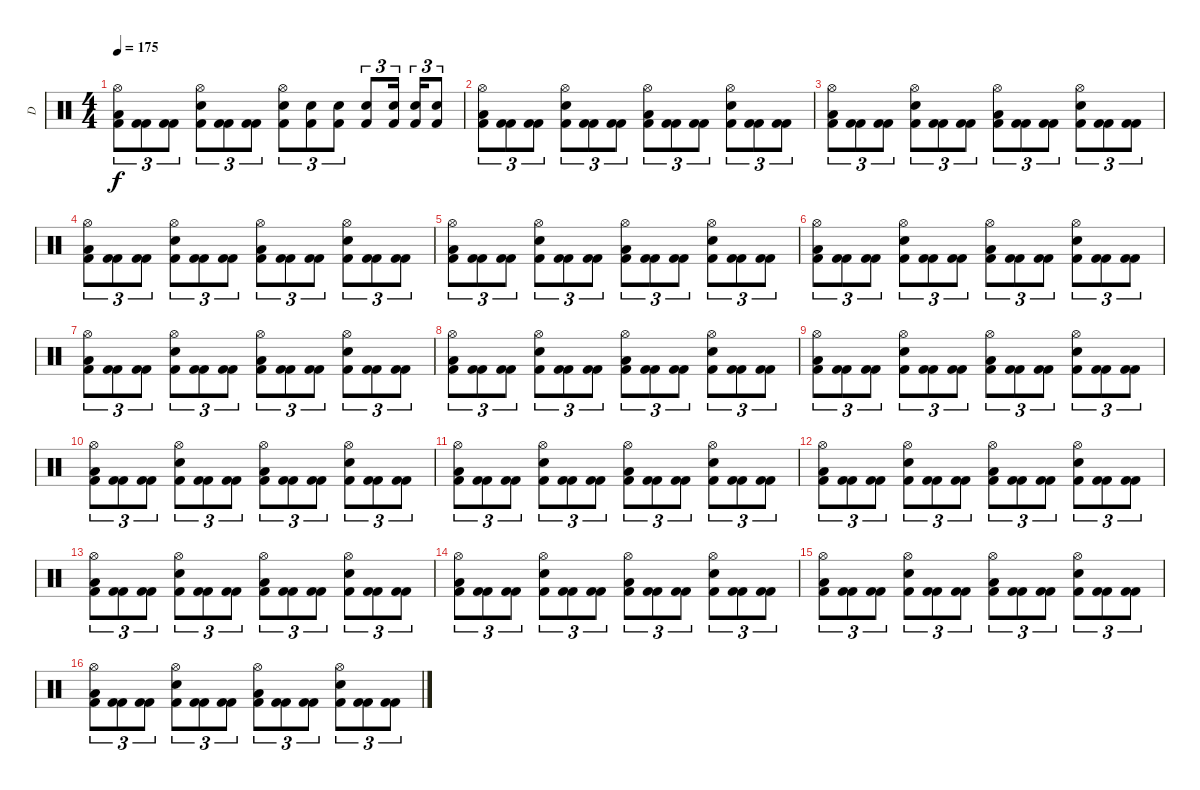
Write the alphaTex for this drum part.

\track ("D" "D") {instrument percussion}
\staff {score}
\articulation defaults
\ts (4 4)
\tempo 175
\clef neutral
\ks c
("Hi-Hat (open)" "Low Floor Tom (hit)" "Kick (hit) 2").8{tu (3 2) dy f} ("Kick (hit) 2" "Kick (hit) 2").8{tu (3 2)} ("Kick (hit) 2" "Kick (hit) 2").8{tu (3 2)} ("Hi-Hat (open)" "Electric Snare (hit)" "Kick (hit) 2").8{tu (3 2)} ("Kick (hit) 2" "Kick (hit) 2").8{tu (3 2)} ("Kick (hit) 2" "Kick (hit) 2").8{tu (3 2)} ("Hi-Hat (open)" "Snare (hit) 2" "Kick (hit) 2").8{tu (3 2)} ("Snare (hit) 2" "Kick (hit) 2").8{tu (3 2)} ("Snare (hit) 2" "Kick (hit) 2").8{tu (3 2)} ("Snare (hit) 2" "Kick (hit) 2").8{tu (3 2)} ("Snare (hit) 2" "Kick (hit) 2").16{tu (3 2)} ("Snare (hit) 2" "Kick (hit) 2").16{tu (3 2)} ("Snare (hit) 2" "Kick (hit) 2").8{tu (3 2)} |
("Hi-Hat (open)" "Low Floor Tom (hit)" "Kick (hit) 2").8{tu (3 2)} ("Kick (hit) 2" "Kick (hit) 2").8{tu (3 2)} ("Kick (hit) 2" "Kick (hit) 2").8{tu (3 2)} ("Hi-Hat (open)" "Electric Snare (hit)" "Kick (hit) 2").8{tu (3 2)} ("Kick (hit) 2" "Kick (hit) 2").8{tu (3 2)} ("Kick (hit) 2" "Kick (hit) 2").8{tu (3 2)} ("Hi-Hat (open)" "Low Floor Tom (hit)" "Kick (hit) 2").8{tu (3 2)} ("Kick (hit) 2" "Kick (hit) 2").8{tu (3 2)} ("Kick (hit) 2" "Kick (hit) 2").8{tu (3 2)} ("Hi-Hat (open)" "Snare (hit) 2" "Kick (hit) 2").8{tu (3 2)} ("Kick (hit) 2" "Kick (hit) 2").8{tu (3 2)} ("Kick (hit) 2" "Kick (hit) 2").8{tu (3 2)} |
("Hi-Hat (open)" "Low Floor Tom (hit)" "Kick (hit) 2").8{tu (3 2)} ("Kick (hit) 2" "Kick (hit) 2").8{tu (3 2)} ("Kick (hit) 2" "Kick (hit) 2").8{tu (3 2)} ("Hi-Hat (open)" "Electric Snare (hit)" "Kick (hit) 2").8{tu (3 2)} ("Kick (hit) 2" "Kick (hit) 2").8{tu (3 2)} ("Kick (hit) 2" "Kick (hit) 2").8{tu (3 2)} ("Hi-Hat (open)" "Low Floor Tom (hit)" "Kick (hit) 2").8{tu (3 2)} ("Kick (hit) 2" "Kick (hit) 2").8{tu (3 2)} ("Kick (hit) 2" "Kick (hit) 2").8{tu (3 2)} ("Hi-Hat (open)" "Snare (hit) 2" "Kick (hit) 2").8{tu (3 2)} ("Kick (hit) 2" "Kick (hit) 2").8{tu (3 2)} ("Kick (hit) 2" "Kick (hit) 2").8{tu (3 2)} |
("Hi-Hat (open)" "Low Floor Tom (hit)" "Kick (hit) 2").8{tu (3 2)} ("Kick (hit) 2" "Kick (hit) 2").8{tu (3 2)} ("Kick (hit) 2" "Kick (hit) 2").8{tu (3 2)} ("Hi-Hat (open)" "Electric Snare (hit)" "Kick (hit) 2").8{tu (3 2)} ("Kick (hit) 2" "Kick (hit) 2").8{tu (3 2)} ("Kick (hit) 2" "Kick (hit) 2").8{tu (3 2)} ("Hi-Hat (open)" "Low Floor Tom (hit)" "Kick (hit) 2").8{tu (3 2)} ("Kick (hit) 2" "Kick (hit) 2").8{tu (3 2)} ("Kick (hit) 2" "Kick (hit) 2").8{tu (3 2)} ("Hi-Hat (open)" "Snare (hit) 2" "Kick (hit) 2").8{tu (3 2)} ("Kick (hit) 2" "Kick (hit) 2").8{tu (3 2)} ("Kick (hit) 2" "Kick (hit) 2").8{tu (3 2)} |
("Hi-Hat (open)" "Low Floor Tom (hit)" "Kick (hit) 2").8{tu (3 2)} ("Kick (hit) 2" "Kick (hit) 2").8{tu (3 2)} ("Kick (hit) 2" "Kick (hit) 2").8{tu (3 2)} ("Hi-Hat (open)" "Electric Snare (hit)" "Kick (hit) 2").8{tu (3 2)} ("Kick (hit) 2" "Kick (hit) 2").8{tu (3 2)} ("Kick (hit) 2" "Kick (hit) 2").8{tu (3 2)} ("Hi-Hat (open)" "Low Floor Tom (hit)" "Kick (hit) 2").8{tu (3 2)} ("Kick (hit) 2" "Kick (hit) 2").8{tu (3 2)} ("Kick (hit) 2" "Kick (hit) 2").8{tu (3 2)} ("Hi-Hat (open)" "Snare (hit) 2" "Kick (hit) 2").8{tu (3 2)} ("Kick (hit) 2" "Kick (hit) 2").8{tu (3 2)} ("Kick (hit) 2" "Kick (hit) 2").8{tu (3 2)} |
("Hi-Hat (open)" "Low Floor Tom (hit)" "Kick (hit) 2").8{tu (3 2)} ("Kick (hit) 2" "Kick (hit) 2").8{tu (3 2)} ("Kick (hit) 2" "Kick (hit) 2").8{tu (3 2)} ("Hi-Hat (open)" "Electric Snare (hit)" "Kick (hit) 2").8{tu (3 2)} ("Kick (hit) 2" "Kick (hit) 2").8{tu (3 2)} ("Kick (hit) 2" "Kick (hit) 2").8{tu (3 2)} ("Hi-Hat (open)" "Low Floor Tom (hit)" "Kick (hit) 2").8{tu (3 2)} ("Kick (hit) 2" "Kick (hit) 2").8{tu (3 2)} ("Kick (hit) 2" "Kick (hit) 2").8{tu (3 2)} ("Hi-Hat (open)" "Snare (hit) 2" "Kick (hit) 2").8{tu (3 2)} ("Kick (hit) 2" "Kick (hit) 2").8{tu (3 2)} ("Kick (hit) 2" "Kick (hit) 2").8{tu (3 2)} |
("Hi-Hat (open)" "Low Floor Tom (hit)" "Kick (hit) 2").8{tu (3 2)} ("Kick (hit) 2" "Kick (hit) 2").8{tu (3 2)} ("Kick (hit) 2" "Kick (hit) 2").8{tu (3 2)} ("Hi-Hat (open)" "Electric Snare (hit)" "Kick (hit) 2").8{tu (3 2)} ("Kick (hit) 2" "Kick (hit) 2").8{tu (3 2)} ("Kick (hit) 2" "Kick (hit) 2").8{tu (3 2)} ("Hi-Hat (open)" "Low Floor Tom (hit)" "Kick (hit) 2").8{tu (3 2)} ("Kick (hit) 2" "Kick (hit) 2").8{tu (3 2)} ("Kick (hit) 2" "Kick (hit) 2").8{tu (3 2)} ("Hi-Hat (open)" "Snare (hit) 2" "Kick (hit) 2").8{tu (3 2)} ("Kick (hit) 2" "Kick (hit) 2").8{tu (3 2)} ("Kick (hit) 2" "Kick (hit) 2").8{tu (3 2)} |
("Hi-Hat (open)" "Low Floor Tom (hit)" "Kick (hit) 2").8{tu (3 2)} ("Kick (hit) 2" "Kick (hit) 2").8{tu (3 2)} ("Kick (hit) 2" "Kick (hit) 2").8{tu (3 2)} ("Hi-Hat (open)" "Electric Snare (hit)" "Kick (hit) 2").8{tu (3 2)} ("Kick (hit) 2" "Kick (hit) 2").8{tu (3 2)} ("Kick (hit) 2" "Kick (hit) 2").8{tu (3 2)} ("Hi-Hat (open)" "Low Floor Tom (hit)" "Kick (hit) 2").8{tu (3 2)} ("Kick (hit) 2" "Kick (hit) 2").8{tu (3 2)} ("Kick (hit) 2" "Kick (hit) 2").8{tu (3 2)} ("Hi-Hat (open)" "Snare (hit) 2" "Kick (hit) 2").8{tu (3 2)} ("Kick (hit) 2" "Kick (hit) 2").8{tu (3 2)} ("Kick (hit) 2" "Kick (hit) 2").8{tu (3 2)} |
("Hi-Hat (open)" "Low Floor Tom (hit)" "Kick (hit) 2").8{tu (3 2)} ("Kick (hit) 2" "Kick (hit) 2").8{tu (3 2)} ("Kick (hit) 2" "Kick (hit) 2").8{tu (3 2)} ("Hi-Hat (open)" "Electric Snare (hit)" "Kick (hit) 2").8{tu (3 2)} ("Kick (hit) 2" "Kick (hit) 2").8{tu (3 2)} ("Kick (hit) 2" "Kick (hit) 2").8{tu (3 2)} ("Hi-Hat (open)" "Low Floor Tom (hit)" "Kick (hit) 2").8{tu (3 2)} ("Kick (hit) 2" "Kick (hit) 2").8{tu (3 2)} ("Kick (hit) 2" "Kick (hit) 2").8{tu (3 2)} ("Hi-Hat (open)" "Snare (hit) 2" "Kick (hit) 2").8{tu (3 2)} ("Kick (hit) 2" "Kick (hit) 2").8{tu (3 2)} ("Kick (hit) 2" "Kick (hit) 2").8{tu (3 2)} |
("Hi-Hat (open)" "Low Floor Tom (hit)" "Kick (hit) 2").8{tu (3 2)} ("Kick (hit) 2" "Kick (hit) 2").8{tu (3 2)} ("Kick (hit) 2" "Kick (hit) 2").8{tu (3 2)} ("Hi-Hat (open)" "Electric Snare (hit)" "Kick (hit) 2").8{tu (3 2)} ("Kick (hit) 2" "Kick (hit) 2").8{tu (3 2)} ("Kick (hit) 2" "Kick (hit) 2").8{tu (3 2)} ("Hi-Hat (open)" "Low Floor Tom (hit)" "Kick (hit) 2").8{tu (3 2)} ("Kick (hit) 2" "Kick (hit) 2").8{tu (3 2)} ("Kick (hit) 2" "Kick (hit) 2").8{tu (3 2)} ("Hi-Hat (open)" "Snare (hit) 2" "Kick (hit) 2").8{tu (3 2)} ("Kick (hit) 2" "Kick (hit) 2").8{tu (3 2)} ("Kick (hit) 2" "Kick (hit) 2").8{tu (3 2)} |
("Hi-Hat (open)" "Low Floor Tom (hit)" "Kick (hit) 2").8{tu (3 2)} ("Kick (hit) 2" "Kick (hit) 2").8{tu (3 2)} ("Kick (hit) 2" "Kick (hit) 2").8{tu (3 2)} ("Hi-Hat (open)" "Electric Snare (hit)" "Kick (hit) 2").8{tu (3 2)} ("Kick (hit) 2" "Kick (hit) 2").8{tu (3 2)} ("Kick (hit) 2" "Kick (hit) 2").8{tu (3 2)} ("Hi-Hat (open)" "Low Floor Tom (hit)" "Kick (hit) 2").8{tu (3 2)} ("Kick (hit) 2" "Kick (hit) 2").8{tu (3 2)} ("Kick (hit) 2" "Kick (hit) 2").8{tu (3 2)} ("Hi-Hat (open)" "Snare (hit) 2" "Kick (hit) 2").8{tu (3 2)} ("Kick (hit) 2" "Kick (hit) 2").8{tu (3 2)} ("Kick (hit) 2" "Kick (hit) 2").8{tu (3 2)} |
("Hi-Hat (open)" "Low Floor Tom (hit)" "Kick (hit) 2").8{tu (3 2)} ("Kick (hit) 2" "Kick (hit) 2").8{tu (3 2)} ("Kick (hit) 2" "Kick (hit) 2").8{tu (3 2)} ("Hi-Hat (open)" "Electric Snare (hit)" "Kick (hit) 2").8{tu (3 2)} ("Kick (hit) 2" "Kick (hit) 2").8{tu (3 2)} ("Kick (hit) 2" "Kick (hit) 2").8{tu (3 2)} ("Hi-Hat (open)" "Low Floor Tom (hit)" "Kick (hit) 2").8{tu (3 2)} ("Kick (hit) 2" "Kick (hit) 2").8{tu (3 2)} ("Kick (hit) 2" "Kick (hit) 2").8{tu (3 2)} ("Hi-Hat (open)" "Snare (hit) 2" "Kick (hit) 2").8{tu (3 2)} ("Kick (hit) 2" "Kick (hit) 2").8{tu (3 2)} ("Kick (hit) 2" "Kick (hit) 2").8{tu (3 2)} |
("Hi-Hat (open)" "Low Floor Tom (hit)" "Kick (hit) 2").8{tu (3 2)} ("Kick (hit) 2" "Kick (hit) 2").8{tu (3 2)} ("Kick (hit) 2" "Kick (hit) 2").8{tu (3 2)} ("Hi-Hat (open)" "Electric Snare (hit)" "Kick (hit) 2").8{tu (3 2)} ("Kick (hit) 2" "Kick (hit) 2").8{tu (3 2)} ("Kick (hit) 2" "Kick (hit) 2").8{tu (3 2)} ("Hi-Hat (open)" "Low Floor Tom (hit)" "Kick (hit) 2").8{tu (3 2)} ("Kick (hit) 2" "Kick (hit) 2").8{tu (3 2)} ("Kick (hit) 2" "Kick (hit) 2").8{tu (3 2)} ("Hi-Hat (open)" "Snare (hit) 2" "Kick (hit) 2").8{tu (3 2)} ("Kick (hit) 2" "Kick (hit) 2").8{tu (3 2)} ("Kick (hit) 2" "Kick (hit) 2").8{tu (3 2)} |
("Hi-Hat (open)" "Low Floor Tom (hit)" "Kick (hit) 2").8{tu (3 2)} ("Kick (hit) 2" "Kick (hit) 2").8{tu (3 2)} ("Kick (hit) 2" "Kick (hit) 2").8{tu (3 2)} ("Hi-Hat (open)" "Electric Snare (hit)" "Kick (hit) 2").8{tu (3 2)} ("Kick (hit) 2" "Kick (hit) 2").8{tu (3 2)} ("Kick (hit) 2" "Kick (hit) 2").8{tu (3 2)} ("Hi-Hat (open)" "Low Floor Tom (hit)" "Kick (hit) 2").8{tu (3 2)} ("Kick (hit) 2" "Kick (hit) 2").8{tu (3 2)} ("Kick (hit) 2" "Kick (hit) 2").8{tu (3 2)} ("Hi-Hat (open)" "Snare (hit) 2" "Kick (hit) 2").8{tu (3 2)} ("Kick (hit) 2" "Kick (hit) 2").8{tu (3 2)} ("Kick (hit) 2" "Kick (hit) 2").8{tu (3 2)} |
("Hi-Hat (open)" "Low Floor Tom (hit)" "Kick (hit) 2").8{tu (3 2)} ("Kick (hit) 2" "Kick (hit) 2").8{tu (3 2)} ("Kick (hit) 2" "Kick (hit) 2").8{tu (3 2)} ("Hi-Hat (open)" "Electric Snare (hit)" "Kick (hit) 2").8{tu (3 2)} ("Kick (hit) 2" "Kick (hit) 2").8{tu (3 2)} ("Kick (hit) 2" "Kick (hit) 2").8{tu (3 2)} ("Hi-Hat (open)" "Low Floor Tom (hit)" "Kick (hit) 2").8{tu (3 2)} ("Kick (hit) 2" "Kick (hit) 2").8{tu (3 2)} ("Kick (hit) 2" "Kick (hit) 2").8{tu (3 2)} ("Hi-Hat (open)" "Snare (hit) 2" "Kick (hit) 2").8{tu (3 2)} ("Kick (hit) 2" "Kick (hit) 2").8{tu (3 2)} ("Kick (hit) 2" "Kick (hit) 2").8{tu (3 2)} |
("Hi-Hat (open)" "Low Floor Tom (hit)" "Kick (hit) 2").8{tu (3 2)} ("Kick (hit) 2" "Kick (hit) 2").8{tu (3 2)} ("Kick (hit) 2" "Kick (hit) 2").8{tu (3 2)} ("Hi-Hat (open)" "Electric Snare (hit)" "Kick (hit) 2").8{tu (3 2)} ("Kick (hit) 2" "Kick (hit) 2").8{tu (3 2)} ("Kick (hit) 2" "Kick (hit) 2").8{tu (3 2)} ("Hi-Hat (open)" "Low Floor Tom (hit)" "Kick (hit) 2").8{tu (3 2)} ("Kick (hit) 2" "Kick (hit) 2").8{tu (3 2)} ("Kick (hit) 2" "Kick (hit) 2").8{tu (3 2)} ("Hi-Hat (open)" "Snare (hit) 2" "Kick (hit) 2").8{tu (3 2)} ("Kick (hit) 2" "Kick (hit) 2").8{tu (3 2)} ("Kick (hit) 2" "Kick (hit) 2").8{tu (3 2)}
